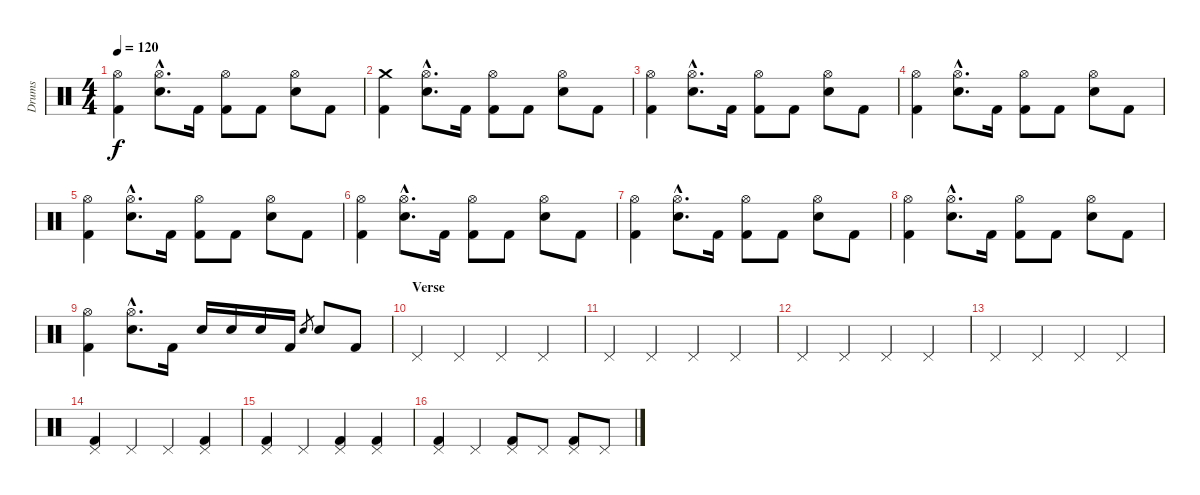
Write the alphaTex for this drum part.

\track ("Drums" "Drums") {instrument percussion}
\staff {score}
\articulation defaults
\ts (4 4)
\tempo 120
\clef neutral
\ks c
("Hi-Hat (open)" "Kick (hit) 2").4{dy f} ("Hi-Hat (open)"{hac} "Electric Snare (hit)"{hac}).8{d} "Kick (hit) 2".16 ("Hi-Hat (open)" "Kick (hit) 2").8 "Kick (hit) 2".8 ("Hi-Hat (open)" "Electric Snare (hit)").8 "Kick (hit) 2".8 |
("Crash medium (hit)" "Kick (hit) 2").4 ("Hi-Hat (open)"{hac} "Electric Snare (hit)"{hac}).8{d} "Kick (hit) 2".16 ("Hi-Hat (open)" "Kick (hit) 2").8 "Kick (hit) 2".8 ("Hi-Hat (open)" "Electric Snare (hit)").8 "Kick (hit) 2".8 |
("Hi-Hat (open)" "Kick (hit) 2").4 ("Hi-Hat (open)"{hac} "Electric Snare (hit)"{hac}).8{d} "Kick (hit) 2".16 ("Hi-Hat (open)" "Kick (hit) 2").8 "Kick (hit) 2".8 ("Hi-Hat (open)" "Electric Snare (hit)").8 "Kick (hit) 2".8 |
("Hi-Hat (open)" "Kick (hit) 2").4 ("Hi-Hat (open)"{hac} "Electric Snare (hit)"{hac}).8{d} "Kick (hit) 2".16 ("Hi-Hat (open)" "Kick (hit) 2").8 "Kick (hit) 2".8 ("Hi-Hat (open)" "Electric Snare (hit)").8 "Kick (hit) 2".8 |
("Hi-Hat (open)" "Kick (hit) 2").4 ("Hi-Hat (open)"{hac} "Electric Snare (hit)"{hac}).8{d} "Kick (hit) 2".16 ("Hi-Hat (open)" "Kick (hit) 2").8 "Kick (hit) 2".8 ("Hi-Hat (open)" "Electric Snare (hit)").8 "Kick (hit) 2".8 |
("Hi-Hat (open)" "Kick (hit) 2").4 ("Hi-Hat (open)"{hac} "Electric Snare (hit)"{hac}).8{d} "Kick (hit) 2".16 ("Hi-Hat (open)" "Kick (hit) 2").8 "Kick (hit) 2".8 ("Hi-Hat (open)" "Electric Snare (hit)").8 "Kick (hit) 2".8 |
("Hi-Hat (open)" "Kick (hit) 2").4 ("Hi-Hat (open)"{hac} "Electric Snare (hit)"{hac}).8{d} "Kick (hit) 2".16 ("Hi-Hat (open)" "Kick (hit) 2").8 "Kick (hit) 2".8 ("Hi-Hat (open)" "Electric Snare (hit)").8 "Kick (hit) 2".8 |
("Hi-Hat (open)" "Kick (hit) 2").4 ("Hi-Hat (open)"{hac} "Electric Snare (hit)"{hac}).8{d} "Kick (hit) 2".16 ("Hi-Hat (open)" "Kick (hit) 2").8 "Kick (hit) 2".8 ("Hi-Hat (open)" "Electric Snare (hit)").8 "Kick (hit) 2".8 |
("Hi-Hat (open)" "Kick (hit) 2").4 ("Hi-Hat (open)"{hac} "Electric Snare (hit)"{hac}).8{d} "Kick (hit) 2".16 "Electric Snare (hit)".16 "Electric Snare (hit)".16 "Electric Snare (hit)".16 "Kick (hit) 2".16 "Electric Snare (hit)".8{gr} "Electric Snare (hit)".8 "Kick (hit) 2".8 |
\section ("" "Verse")
"Pedal Hi-Hat (hit)".4 "Pedal Hi-Hat (hit)".4 "Pedal Hi-Hat (hit)".4 "Pedal Hi-Hat (hit)".4 |
"Pedal Hi-Hat (hit)".4 "Pedal Hi-Hat (hit)".4 "Pedal Hi-Hat (hit)".4 "Pedal Hi-Hat (hit)".4 |
"Pedal Hi-Hat (hit)".4 "Pedal Hi-Hat (hit)".4 "Pedal Hi-Hat (hit)".4 "Pedal Hi-Hat (hit)".4 |
"Pedal Hi-Hat (hit)".4 "Pedal Hi-Hat (hit)".4 "Pedal Hi-Hat (hit)".4 "Pedal Hi-Hat (hit)".4 |
("Pedal Hi-Hat (hit)" "Kick (hit) 2").4 "Pedal Hi-Hat (hit)".4 "Pedal Hi-Hat (hit)".4 ("Pedal Hi-Hat (hit)" "Kick (hit) 2").4 |
("Pedal Hi-Hat (hit)" "Kick (hit) 2").4 "Pedal Hi-Hat (hit)".4 ("Pedal Hi-Hat (hit)" "Kick (hit) 2").4 ("Pedal Hi-Hat (hit)" "Kick (hit) 2").4 |
("Pedal Hi-Hat (hit)" "Kick (hit) 2").4 "Pedal Hi-Hat (hit)".4 ("Pedal Hi-Hat (hit)" "Kick (hit) 2").8 "Pedal Hi-Hat (hit)".8 ("Pedal Hi-Hat (hit)" "Kick (hit) 2").8 "Pedal Hi-Hat (hit)".8
